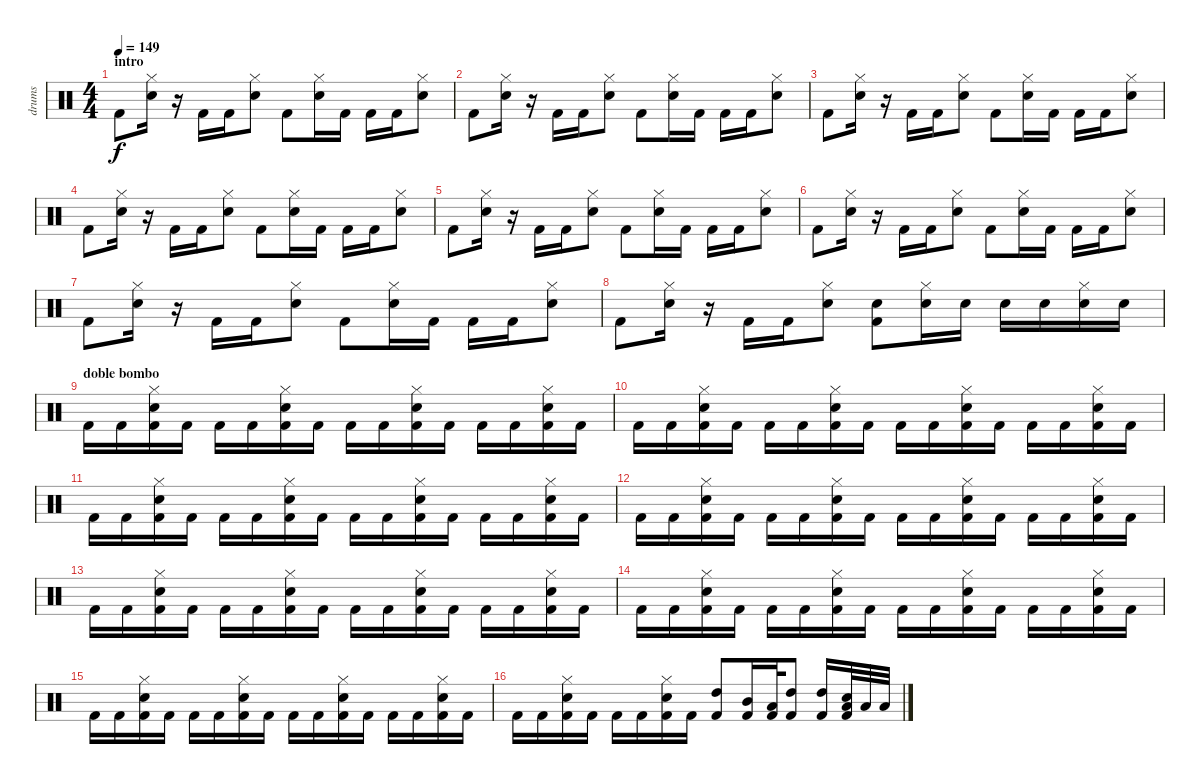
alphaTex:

\track ("drums" "drums") {instrument percussion}
\staff {score}
\articulation defaults
\ts (4 4)
\section ("" "intro")
\tempo 149
\clef neutral
\ks c "Kick (hit) 2".8{dy f}
("Electric Snare (hit)" "Hi-Hat (closed)").16 r.16 "Kick (hit) 2".16 "Kick (hit) 2".16 ("Electric Snare (hit)" "Hi-Hat (closed)").8 "Kick (hit) 2".8 ("Electric Snare (hit)" "Hi-Hat (closed)").16 "Kick (hit) 2".16 "Kick (hit) 2".16 "Kick (hit) 2".16 ("Electric Snare (hit)" "Hi-Hat (closed)").8 |
"Kick (hit) 2".8 ("Electric Snare (hit)" "Hi-Hat (closed)").16 r.16 "Kick (hit) 2".16 "Kick (hit) 2".16 ("Electric Snare (hit)" "Hi-Hat (closed)").8 "Kick (hit) 2".8 ("Electric Snare (hit)" "Hi-Hat (closed)").16 "Kick (hit) 2".16 "Kick (hit) 2".16 "Kick (hit) 2".16 ("Electric Snare (hit)" "Hi-Hat (closed)").8 |
"Kick (hit) 2".8 ("Electric Snare (hit)" "Hi-Hat (closed)").16 r.16 "Kick (hit) 2".16 "Kick (hit) 2".16 ("Electric Snare (hit)" "Hi-Hat (closed)").8 "Kick (hit) 2".8 ("Electric Snare (hit)" "Hi-Hat (closed)").16 "Kick (hit) 2".16 "Kick (hit) 2".16 "Kick (hit) 2".16 ("Electric Snare (hit)" "Hi-Hat (closed)").8 |
"Kick (hit) 2".8 ("Electric Snare (hit)" "Hi-Hat (closed)").16 r.16 "Kick (hit) 2".16 "Kick (hit) 2".16 ("Electric Snare (hit)" "Hi-Hat (closed)").8 "Kick (hit) 2".8 ("Electric Snare (hit)" "Hi-Hat (closed)").16 "Kick (hit) 2".16 "Kick (hit) 2".16 "Kick (hit) 2".16 ("Electric Snare (hit)" "Hi-Hat (closed)").8 |
"Kick (hit) 2".8 ("Electric Snare (hit)" "Hi-Hat (closed)").16 r.16 "Kick (hit) 2".16 "Kick (hit) 2".16 ("Electric Snare (hit)" "Hi-Hat (closed)").8 "Kick (hit) 2".8 ("Electric Snare (hit)" "Hi-Hat (closed)").16 "Kick (hit) 2".16 "Kick (hit) 2".16 "Kick (hit) 2".16 ("Electric Snare (hit)" "Hi-Hat (closed)").8 |
"Kick (hit) 2".8 ("Electric Snare (hit)" "Hi-Hat (closed)").16 r.16 "Kick (hit) 2".16 "Kick (hit) 2".16 ("Electric Snare (hit)" "Hi-Hat (closed)").8 "Kick (hit) 2".8 ("Electric Snare (hit)" "Hi-Hat (closed)").16 "Kick (hit) 2".16 "Kick (hit) 2".16 "Kick (hit) 2".16 ("Electric Snare (hit)" "Hi-Hat (closed)").8 |
"Kick (hit) 2".8 ("Electric Snare (hit)" "Hi-Hat (closed)").16 r.16 "Kick (hit) 2".16 "Kick (hit) 2".16 ("Electric Snare (hit)" "Hi-Hat (closed)").8 "Kick (hit) 2".8 ("Electric Snare (hit)" "Hi-Hat (closed)").16 "Kick (hit) 2".16 "Kick (hit) 2".16 "Kick (hit) 2".16 ("Electric Snare (hit)" "Hi-Hat (closed)").8 |
"Kick (hit) 2".8 ("Electric Snare (hit)" "Hi-Hat (closed)").16 r.16 "Kick (hit) 2".16 "Kick (hit) 2".16 ("Electric Snare (hit)" "Hi-Hat (closed)").8 ("Kick (hit) 2" "Electric Snare (hit)").8 ("Electric Snare (hit)" "Hi-Hat (closed)").16 "Electric Snare (hit)".16 "Electric Snare (hit)".16 "Electric Snare (hit)".16 ("Electric Snare (hit)" "Hi-Hat (closed)").16 "Electric Snare (hit)".16 |
\section ("" "doble bombo")
"Kick (hit) 2".16 "Kick (hit) 2".16 ("Kick (hit) 2" "Electric Snare (hit)" "Hi-Hat (closed)").16 "Kick (hit) 2".16 "Kick (hit) 2".16 "Kick (hit) 2".16 ("Kick (hit) 2" "Electric Snare (hit)" "Hi-Hat (closed)").16 "Kick (hit) 2".16 "Kick (hit) 2".16 "Kick (hit) 2".16 ("Kick (hit) 2" "Electric Snare (hit)" "Hi-Hat (closed)").16 "Kick (hit) 2".16 "Kick (hit) 2".16 "Kick (hit) 2".16 ("Kick (hit) 2" "Electric Snare (hit)" "Hi-Hat (closed)").16 "Kick (hit) 2".16 |
"Kick (hit) 2".16 "Kick (hit) 2".16 ("Kick (hit) 2" "Electric Snare (hit)" "Hi-Hat (closed)").16 "Kick (hit) 2".16 "Kick (hit) 2".16 "Kick (hit) 2".16 ("Kick (hit) 2" "Electric Snare (hit)" "Hi-Hat (closed)").16 "Kick (hit) 2".16 "Kick (hit) 2".16 "Kick (hit) 2".16 ("Kick (hit) 2" "Electric Snare (hit)" "Hi-Hat (closed)").16 "Kick (hit) 2".16 "Kick (hit) 2".16 "Kick (hit) 2".16 ("Kick (hit) 2" "Electric Snare (hit)" "Hi-Hat (closed)").16 "Kick (hit) 2".16 |
"Kick (hit) 2".16 "Kick (hit) 2".16 ("Kick (hit) 2" "Electric Snare (hit)" "Hi-Hat (closed)").16 "Kick (hit) 2".16 "Kick (hit) 2".16 "Kick (hit) 2".16 ("Kick (hit) 2" "Electric Snare (hit)" "Hi-Hat (closed)").16 "Kick (hit) 2".16 "Kick (hit) 2".16 "Kick (hit) 2".16 ("Kick (hit) 2" "Electric Snare (hit)" "Hi-Hat (closed)").16 "Kick (hit) 2".16 "Kick (hit) 2".16 "Kick (hit) 2".16 ("Kick (hit) 2" "Electric Snare (hit)" "Hi-Hat (closed)").16 "Kick (hit) 2".16 |
"Kick (hit) 2".16 "Kick (hit) 2".16 ("Kick (hit) 2" "Electric Snare (hit)" "Hi-Hat (closed)").16 "Kick (hit) 2".16 "Kick (hit) 2".16 "Kick (hit) 2".16 ("Kick (hit) 2" "Electric Snare (hit)" "Hi-Hat (closed)").16 "Kick (hit) 2".16 "Kick (hit) 2".16 "Kick (hit) 2".16 ("Kick (hit) 2" "Electric Snare (hit)" "Hi-Hat (closed)").16 "Kick (hit) 2".16 "Kick (hit) 2".16 "Kick (hit) 2".16 ("Kick (hit) 2" "Electric Snare (hit)" "Hi-Hat (closed)").16 "Kick (hit) 2".16 |
"Kick (hit) 2".16 "Kick (hit) 2".16 ("Kick (hit) 2" "Electric Snare (hit)" "Hi-Hat (closed)").16 "Kick (hit) 2".16 "Kick (hit) 2".16 "Kick (hit) 2".16 ("Kick (hit) 2" "Electric Snare (hit)" "Hi-Hat (closed)").16 "Kick (hit) 2".16 "Kick (hit) 2".16 "Kick (hit) 2".16 ("Kick (hit) 2" "Electric Snare (hit)" "Hi-Hat (closed)").16 "Kick (hit) 2".16 "Kick (hit) 2".16 "Kick (hit) 2".16 ("Kick (hit) 2" "Electric Snare (hit)" "Hi-Hat (closed)").16 "Kick (hit) 2".16 |
"Kick (hit) 2".16 "Kick (hit) 2".16 ("Kick (hit) 2" "Electric Snare (hit)" "Hi-Hat (closed)").16 "Kick (hit) 2".16 "Kick (hit) 2".16 "Kick (hit) 2".16 ("Kick (hit) 2" "Electric Snare (hit)" "Hi-Hat (closed)").16 "Kick (hit) 2".16 "Kick (hit) 2".16 "Kick (hit) 2".16 ("Kick (hit) 2" "Electric Snare (hit)" "Hi-Hat (closed)").16 "Kick (hit) 2".16 "Kick (hit) 2".16 "Kick (hit) 2".16 ("Kick (hit) 2" "Electric Snare (hit)" "Hi-Hat (closed)").16 "Kick (hit) 2".16 |
"Kick (hit) 2".16 "Kick (hit) 2".16 ("Kick (hit) 2" "Electric Snare (hit)" "Hi-Hat (closed)").16 "Kick (hit) 2".16 "Kick (hit) 2".16 "Kick (hit) 2".16 ("Kick (hit) 2" "Electric Snare (hit)" "Hi-Hat (closed)").16 "Kick (hit) 2".16 "Kick (hit) 2".16 "Kick (hit) 2".16 ("Kick (hit) 2" "Electric Snare (hit)" "Hi-Hat (closed)").16 "Kick (hit) 2".16 "Kick (hit) 2".16 "Kick (hit) 2".16 ("Kick (hit) 2" "Electric Snare (hit)" "Hi-Hat (closed)").16 "Kick (hit) 2".16 |
"Kick (hit) 2".16 "Kick (hit) 2".16 ("Kick (hit) 2" "Electric Snare (hit)" "Hi-Hat (closed)").16 "Kick (hit) 2".16 "Kick (hit) 2".16 "Kick (hit) 2".16 ("Kick (hit) 2" "Electric Snare (hit)" "Hi-Hat (closed)").16 "Kick (hit) 2".16 ("Kick (hit) 2" "High Tom (hit)").8 ("Kick (hit) 2" "Mid Tom (hit)").16 ("Kick (hit) 2" "Low Tom (hit)").32 ("Kick (hit) 2" "High Tom (hit)").8 ("Kick (hit) 2" "High Tom (hit)").16 ("Kick (hit) 2" "Electric Snare (hit)" "Low Tom (hit)").32 "Low Tom (hit)".32 "Low Tom (hit)".32
